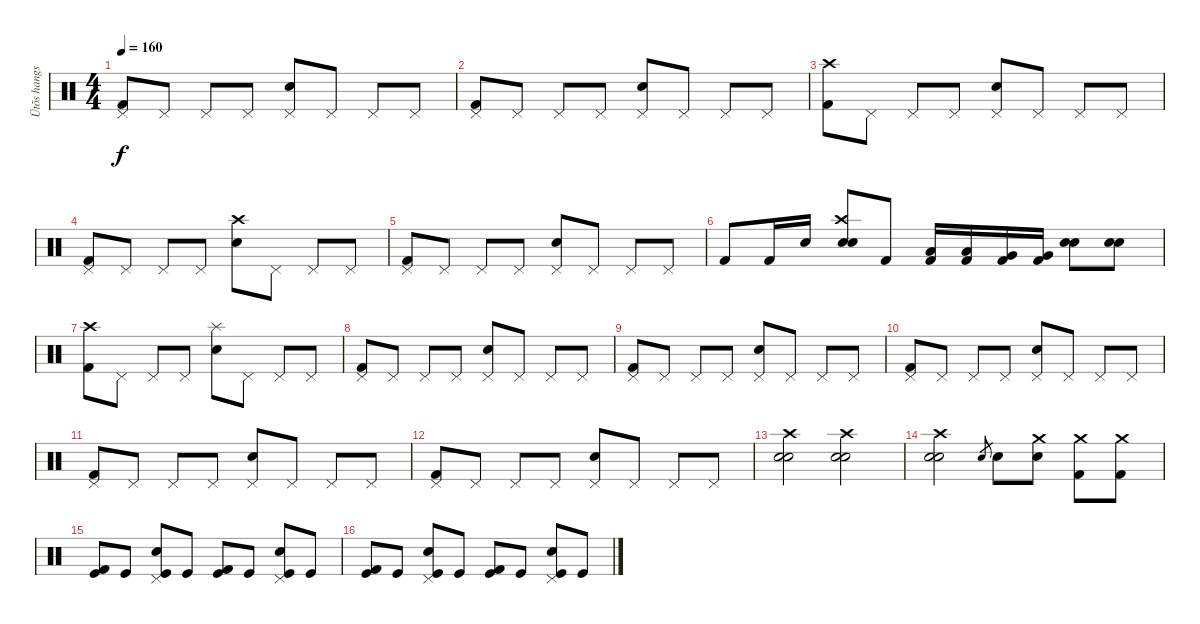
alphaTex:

\track ("Ütõs hangszer" "Ütõs hangs") {instrument percussion}
\staff {score}
\articulation defaults
\ts (4 4)
\tempo 160
\clef neutral
\ks c
("Pedal Hi-Hat (hit)" "Kick (hit) 2").8{dy f} "Pedal Hi-Hat (hit)".8 "Pedal Hi-Hat (hit)".8 "Pedal Hi-Hat (hit)".8 ("Pedal Hi-Hat (hit)" "Snare (hit) 2").8 "Pedal Hi-Hat (hit)".8 "Pedal Hi-Hat (hit)".8 "Pedal Hi-Hat (hit)".8 |
("Pedal Hi-Hat (hit)" "Kick (hit) 2").8 "Pedal Hi-Hat (hit)".8 "Pedal Hi-Hat (hit)".8 "Pedal Hi-Hat (hit)".8 ("Pedal Hi-Hat (hit)" "Snare (hit) 2").8 "Pedal Hi-Hat (hit)".8 "Pedal Hi-Hat (hit)".8 "Pedal Hi-Hat (hit)".8 |
("Crash high (hit)" "Kick (hit) 2").8 "Pedal Hi-Hat (hit)".8 "Pedal Hi-Hat (hit)".8 "Pedal Hi-Hat (hit)".8 ("Pedal Hi-Hat (hit)" "Snare (hit) 2").8 "Pedal Hi-Hat (hit)".8 "Pedal Hi-Hat (hit)".8 "Pedal Hi-Hat (hit)".8 |
("Pedal Hi-Hat (hit)" "Kick (hit) 2").8 "Pedal Hi-Hat (hit)".8 "Pedal Hi-Hat (hit)".8 "Pedal Hi-Hat (hit)".8 ("Crash high (hit)" "Snare (hit) 2").8 "Pedal Hi-Hat (hit)".8 "Pedal Hi-Hat (hit)".8 "Pedal Hi-Hat (hit)".8 |
("Pedal Hi-Hat (hit)" "Kick (hit) 2").8 "Pedal Hi-Hat (hit)".8 "Pedal Hi-Hat (hit)".8 "Pedal Hi-Hat (hit)".8 ("Pedal Hi-Hat (hit)" "Snare (hit) 2").8 "Pedal Hi-Hat (hit)".8 "Pedal Hi-Hat (hit)".8 "Pedal Hi-Hat (hit)".8 |
"Kick (hit) 2".8 "Kick (hit) 2".16 "Electric Snare (hit)".16 ("Crash high (hit)" "Snare (hit) 2" "Electric Snare (hit)").8 "Kick (hit) 2".8 ("Low Tom (hit)" "Kick (hit) 2").16 ("Low Tom (hit)" "Kick (hit) 2").16 ("Very Low Tom (hit)" "Kick (hit) 2").16 ("Very Low Tom (hit)" "Kick (hit) 2").16 ("Snare (hit) 2" "Electric Snare (hit)").8 ("Snare (hit) 2" "Electric Snare (hit)").8 |
("Crash high (hit)" "Kick (hit) 2").8 "Pedal Hi-Hat (hit)".8 "Pedal Hi-Hat (hit)".8 "Pedal Hi-Hat (hit)".8 ("Splash (hit)" "Snare (hit) 2").8 "Pedal Hi-Hat (hit)".8 "Pedal Hi-Hat (hit)".8 "Pedal Hi-Hat (hit)".8 |
("Pedal Hi-Hat (hit)" "Kick (hit) 2").8 "Pedal Hi-Hat (hit)".8 "Pedal Hi-Hat (hit)".8 "Pedal Hi-Hat (hit)".8 ("Pedal Hi-Hat (hit)" "Snare (hit) 2").8 "Pedal Hi-Hat (hit)".8 "Pedal Hi-Hat (hit)".8 "Pedal Hi-Hat (hit)".8 |
("Pedal Hi-Hat (hit)" "Kick (hit) 2").8 "Pedal Hi-Hat (hit)".8 "Pedal Hi-Hat (hit)".8 "Pedal Hi-Hat (hit)".8 ("Pedal Hi-Hat (hit)" "Snare (hit) 2").8 "Pedal Hi-Hat (hit)".8 "Pedal Hi-Hat (hit)".8 "Pedal Hi-Hat (hit)".8 |
("Pedal Hi-Hat (hit)" "Kick (hit) 2").8 "Pedal Hi-Hat (hit)".8 "Pedal Hi-Hat (hit)".8 "Pedal Hi-Hat (hit)".8 ("Pedal Hi-Hat (hit)" "Snare (hit) 2").8 "Pedal Hi-Hat (hit)".8 "Pedal Hi-Hat (hit)".8 "Pedal Hi-Hat (hit)".8 |
("Pedal Hi-Hat (hit)" "Kick (hit) 2").8 "Pedal Hi-Hat (hit)".8 "Pedal Hi-Hat (hit)".8 "Pedal Hi-Hat (hit)".8 ("Pedal Hi-Hat (hit)" "Snare (hit) 2").8 "Pedal Hi-Hat (hit)".8 "Pedal Hi-Hat (hit)".8 "Pedal Hi-Hat (hit)".8 |
("Pedal Hi-Hat (hit)" "Kick (hit) 2").8 "Pedal Hi-Hat (hit)".8 "Pedal Hi-Hat (hit)".8 "Pedal Hi-Hat (hit)".8 ("Pedal Hi-Hat (hit)" "Snare (hit) 2").8 "Pedal Hi-Hat (hit)".8 "Pedal Hi-Hat (hit)".8 "Pedal Hi-Hat (hit)".8 |
("Crash high (hit)" "Snare (hit) 2" "Electric Snare (hit)").2 ("Crash high (hit)" "Snare (hit) 2" "Electric Snare (hit)").2 |
("Crash high (hit)" "Snare (hit) 2" "Electric Snare (hit)").2 "Snare (hit) 2".8{gr} "Snare (hit) 2".8 ("Crash medium (hit)" "Electric Snare (hit)").8 ("Crash medium (hit)" "Kick (hit) 2").8 ("Crash medium (hit)" "Kick (hit) 2").8 |
("Kick (hit) 2" "Kick (hit)").8 "Kick (hit)".8 ("Pedal Hi-Hat (hit)" "Snare (hit) 2" "Kick (hit)").8 "Kick (hit)".8 ("Kick (hit) 2" "Kick (hit)").8 "Kick (hit)".8 ("Pedal Hi-Hat (hit)" "Snare (hit) 2" "Kick (hit)").8 "Kick (hit)".8 |
("Kick (hit) 2" "Kick (hit)").8 "Kick (hit)".8 ("Pedal Hi-Hat (hit)" "Snare (hit) 2" "Kick (hit)").8 "Kick (hit)".8 ("Kick (hit) 2" "Kick (hit)").8 "Kick (hit)".8 ("Pedal Hi-Hat (hit)" "Snare (hit) 2" "Kick (hit)").8 "Kick (hit)".8
